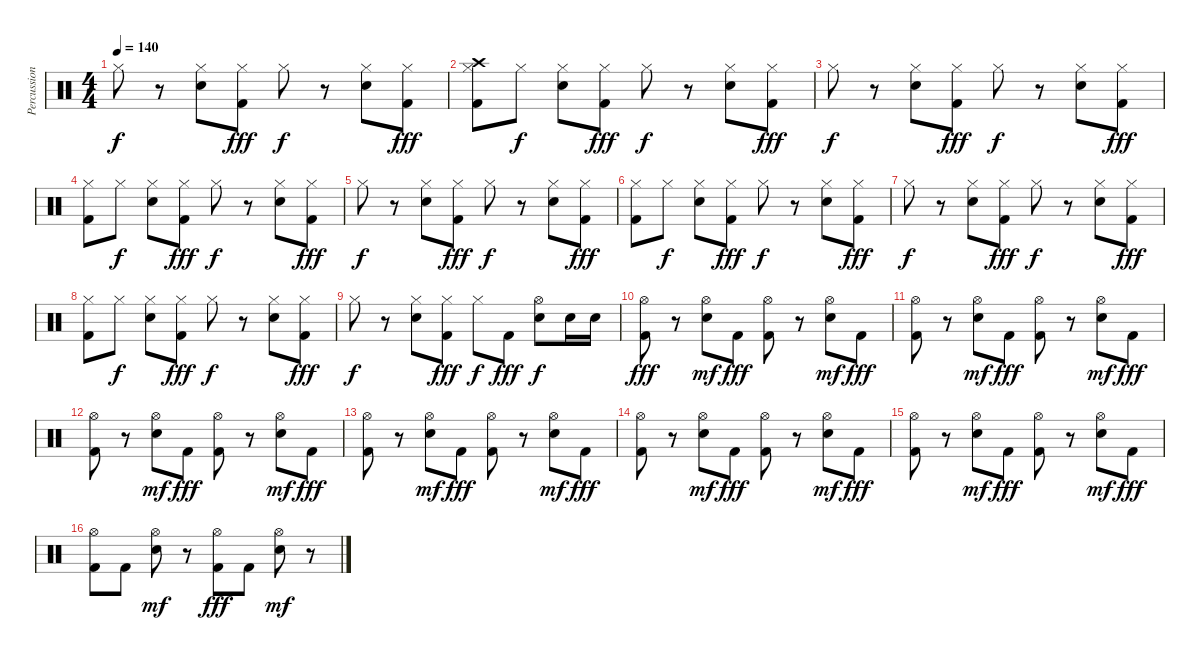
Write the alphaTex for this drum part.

\track ("Percussion" "Percussion") {instrument percussion}
\staff {score}
\articulation defaults
\ts (4 4)
\tempo 140
\clef neutral
\ks c "Hi-Hat (closed)".8{dy f}
r.8 ("Hi-Hat (closed)" "Electric Snare (hit)").8 ("Hi-Hat (closed)" "Kick (hit) 2").8{dy fff} "Hi-Hat (closed)".8{dy f} r.8 ("Hi-Hat (closed)" "Electric Snare (hit)").8 ("Hi-Hat (closed)" "Kick (hit) 2").8{dy fff} |
("Hi-Hat (closed)" "Kick (hit) 2" "Crash high (hit)").8 "Hi-Hat (closed)".8{dy f} ("Hi-Hat (closed)" "Electric Snare (hit)").8 ("Hi-Hat (closed)" "Kick (hit) 2").8{dy fff} "Hi-Hat (closed)".8{dy f} r.8 ("Hi-Hat (closed)" "Electric Snare (hit)").8 ("Hi-Hat (closed)" "Kick (hit) 2").8{dy fff} |
"Hi-Hat (closed)".8{dy f} r.8 ("Hi-Hat (closed)" "Electric Snare (hit)").8 ("Hi-Hat (closed)" "Kick (hit) 2").8{dy fff} "Hi-Hat (closed)".8{dy f} r.8 ("Hi-Hat (closed)" "Electric Snare (hit)").8 ("Hi-Hat (closed)" "Kick (hit) 2").8{dy fff} |
("Hi-Hat (closed)" "Kick (hit) 2").8 "Hi-Hat (closed)".8{dy f} ("Hi-Hat (closed)" "Electric Snare (hit)").8 ("Hi-Hat (closed)" "Kick (hit) 2").8{dy fff} "Hi-Hat (closed)".8{dy f} r.8 ("Hi-Hat (closed)" "Electric Snare (hit)").8 ("Hi-Hat (closed)" "Kick (hit) 2").8{dy fff} |
"Hi-Hat (closed)".8{dy f} r.8 ("Hi-Hat (closed)" "Electric Snare (hit)").8 ("Hi-Hat (closed)" "Kick (hit) 2").8{dy fff} "Hi-Hat (closed)".8{dy f} r.8 ("Hi-Hat (closed)" "Electric Snare (hit)").8 ("Hi-Hat (closed)" "Kick (hit) 2").8{dy fff} |
("Hi-Hat (closed)" "Kick (hit) 2").8 "Hi-Hat (closed)".8{dy f} ("Hi-Hat (closed)" "Electric Snare (hit)").8 ("Hi-Hat (closed)" "Kick (hit) 2").8{dy fff} "Hi-Hat (closed)".8{dy f} r.8 ("Hi-Hat (closed)" "Electric Snare (hit)").8 ("Hi-Hat (closed)" "Kick (hit) 2").8{dy fff} |
"Hi-Hat (closed)".8{dy f} r.8 ("Hi-Hat (closed)" "Electric Snare (hit)").8 ("Hi-Hat (closed)" "Kick (hit) 2").8{dy fff} "Hi-Hat (closed)".8{dy f} r.8 ("Hi-Hat (closed)" "Electric Snare (hit)").8 ("Hi-Hat (closed)" "Kick (hit) 2").8{dy fff} |
("Hi-Hat (closed)" "Kick (hit) 2").8 "Hi-Hat (closed)".8{dy f} ("Hi-Hat (closed)" "Electric Snare (hit)").8 ("Hi-Hat (closed)" "Kick (hit) 2").8{dy fff} "Hi-Hat (closed)".8{dy f} r.8 ("Hi-Hat (closed)" "Electric Snare (hit)").8 ("Hi-Hat (closed)" "Kick (hit) 2").8{dy fff} |
"Hi-Hat (closed)".8{dy f} r.8 ("Hi-Hat (closed)" "Electric Snare (hit)").8 ("Hi-Hat (closed)" "Kick (hit) 2").8{dy fff} "Hi-Hat (closed)".8{dy f} "Kick (hit) 2".8{dy fff} ("Hi-Hat (open)" "Electric Snare (hit)").8{dy f} "Electric Snare (hit)".16 "Electric Snare (hit)".16 |
("Hi-Hat (open)" "Kick (hit) 2").8{dy fff} r.8 ("Hi-Hat (open)" "Electric Snare (hit)").8{dy mf} "Kick (hit) 2".8{dy fff} ("Hi-Hat (open)" "Kick (hit) 2").8 r.8 ("Hi-Hat (open)" "Electric Snare (hit)").8{dy mf} "Kick (hit) 2".8{dy fff} |
("Hi-Hat (open)" "Kick (hit) 2").8 r.8 ("Hi-Hat (open)" "Electric Snare (hit)").8{dy mf} "Kick (hit) 2".8{dy fff} ("Hi-Hat (open)" "Kick (hit) 2").8 r.8 ("Hi-Hat (open)" "Electric Snare (hit)").8{dy mf} "Kick (hit) 2".8{dy fff} |
("Hi-Hat (open)" "Kick (hit) 2").8 r.8 ("Hi-Hat (open)" "Electric Snare (hit)").8{dy mf} "Kick (hit) 2".8{dy fff} ("Hi-Hat (open)" "Kick (hit) 2").8 r.8 ("Hi-Hat (open)" "Electric Snare (hit)").8{dy mf} "Kick (hit) 2".8{dy fff} |
("Hi-Hat (open)" "Kick (hit) 2").8 r.8 ("Hi-Hat (open)" "Electric Snare (hit)").8{dy mf} "Kick (hit) 2".8{dy fff} ("Hi-Hat (open)" "Kick (hit) 2").8 r.8 ("Hi-Hat (open)" "Electric Snare (hit)").8{dy mf} "Kick (hit) 2".8{dy fff} |
("Hi-Hat (open)" "Kick (hit) 2").8 r.8 ("Hi-Hat (open)" "Electric Snare (hit)").8{dy mf} "Kick (hit) 2".8{dy fff} ("Hi-Hat (open)" "Kick (hit) 2").8 r.8 ("Hi-Hat (open)" "Electric Snare (hit)").8{dy mf} "Kick (hit) 2".8{dy fff} |
("Hi-Hat (open)" "Kick (hit) 2").8 r.8 ("Hi-Hat (open)" "Electric Snare (hit)").8{dy mf} "Kick (hit) 2".8{dy fff} ("Hi-Hat (open)" "Kick (hit) 2").8 r.8 ("Hi-Hat (open)" "Electric Snare (hit)").8{dy mf} "Kick (hit) 2".8{dy fff} |
("Hi-Hat (open)" "Kick (hit) 2").8 "Kick (hit) 2".8 ("Hi-Hat (open)" "Electric Snare (hit)").8{dy mf} r.8 ("Hi-Hat (open)" "Kick (hit) 2").8{dy fff} "Kick (hit) 2".8 ("Hi-Hat (open)" "Electric Snare (hit)").8{dy mf} r.8
